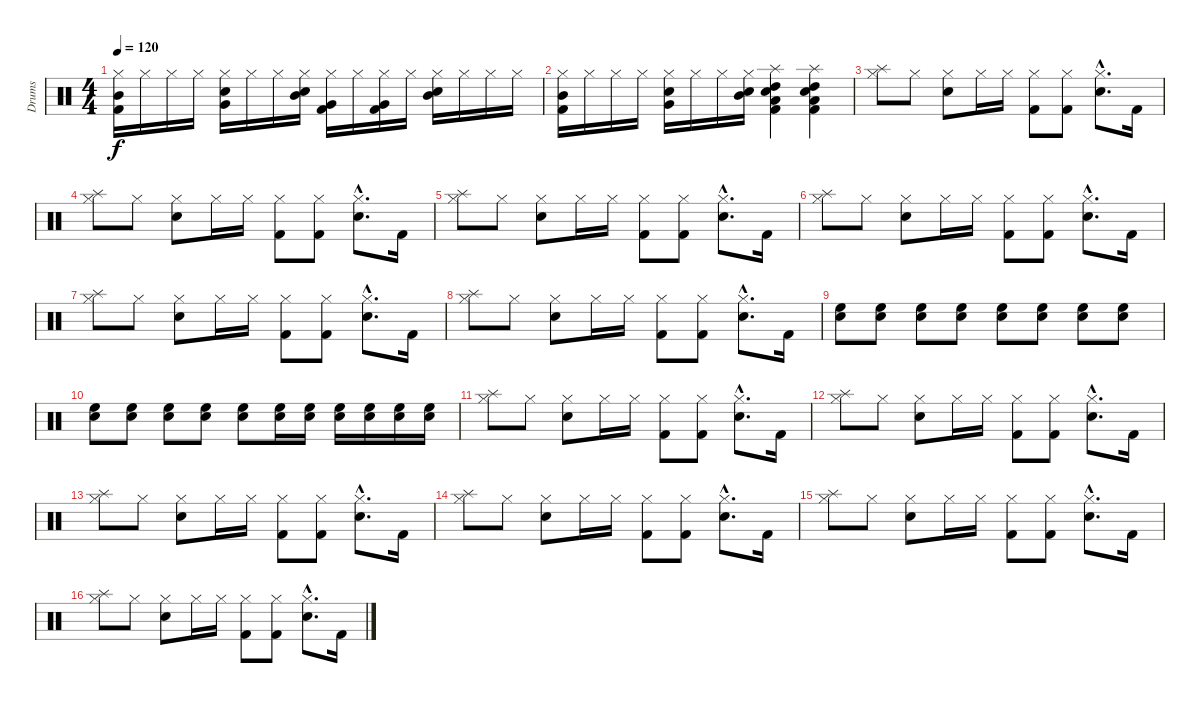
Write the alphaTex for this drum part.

\track ("Drums" "Drums") {instrument percussion}
\staff {score}
\articulation defaults
\ts (4 4)
\tempo 120
\clef neutral
\ks c
("Hi-Hat (closed)" "Kick (hit) 2" "Mid Tom (hit)").16{dy f} "Hi-Hat (closed)".16 "Hi-Hat (closed)".16 "Hi-Hat (closed)".16 ("Hi-Hat (closed)" "Snare (hit) 2" "Very Low Tom (hit)").16 "Hi-Hat (closed)".16 "Hi-Hat (closed)".16 ("Hi-Hat (closed)" "Snare (hit) 2" "Mid Tom (hit)").16 ("Hi-Hat (closed)" "Kick (hit) 2" "Very Low Tom (hit)").16 "Hi-Hat (closed)".16 ("Hi-Hat (closed)" "Kick (hit) 2" "Very Low Tom (hit)").16 "Hi-Hat (closed)".16 ("Hi-Hat (closed)" "Snare (hit) 2" "Mid Tom (hit)").16 "Hi-Hat (closed)".16 "Hi-Hat (closed)".16 "Hi-Hat (closed)".16 |
("Hi-Hat (closed)" "Kick (hit) 2" "Mid Tom (hit)").16 "Hi-Hat (closed)".16 "Hi-Hat (closed)".16 "Hi-Hat (closed)".16 ("Hi-Hat (closed)" "Snare (hit) 2" "Very Low Tom (hit)").16 "Hi-Hat (closed)".16 "Hi-Hat (closed)".16 ("Hi-Hat (closed)" "Snare (hit) 2" "Mid Tom (hit)").16 ("Snare (hit) 2" "High Tom (hit)" "Low Tom (hit)" "Splash (hit)" "Kick (hit) 2").4 ("Snare (hit) 2" "High Tom (hit)" "Low Tom (hit)" "Splash (hit)" "Kick (hit) 2").4 |
("Splash (hit)" "Hi-Hat (closed)").8 "Hi-Hat (closed)".8 ("Snare (hit) 2" "Hi-Hat (closed)").8 "Hi-Hat (closed)".16 "Hi-Hat (closed)".16 ("Kick (hit) 2" "Hi-Hat (closed)").8 ("Kick (hit) 2" "Hi-Hat (closed)").8 ("Snare (hit) 2"{hac} "Hi-Hat (closed)"{hac}).8{d} "Kick (hit) 2".16 |
("Splash (hit)" "Hi-Hat (closed)").8 "Hi-Hat (closed)".8 ("Snare (hit) 2" "Hi-Hat (closed)").8 "Hi-Hat (closed)".16 "Hi-Hat (closed)".16 ("Kick (hit) 2" "Hi-Hat (closed)").8 ("Kick (hit) 2" "Hi-Hat (closed)").8 ("Snare (hit) 2"{hac} "Hi-Hat (closed)"{hac}).8{d} "Kick (hit) 2".16 |
("Splash (hit)" "Hi-Hat (closed)").8 "Hi-Hat (closed)".8 ("Snare (hit) 2" "Hi-Hat (closed)").8 "Hi-Hat (closed)".16 "Hi-Hat (closed)".16 ("Kick (hit) 2" "Hi-Hat (closed)").8 ("Kick (hit) 2" "Hi-Hat (closed)").8 ("Snare (hit) 2"{hac} "Hi-Hat (closed)"{hac}).8{d} "Kick (hit) 2".16 |
("Splash (hit)" "Hi-Hat (closed)").8 "Hi-Hat (closed)".8 ("Snare (hit) 2" "Hi-Hat (closed)").8 "Hi-Hat (closed)".16 "Hi-Hat (closed)".16 ("Kick (hit) 2" "Hi-Hat (closed)").8 ("Kick (hit) 2" "Hi-Hat (closed)").8 ("Snare (hit) 2"{hac} "Hi-Hat (closed)"{hac}).8{d} "Kick (hit) 2".16 |
("Splash (hit)" "Hi-Hat (closed)").8 "Hi-Hat (closed)".8 ("Snare (hit) 2" "Hi-Hat (closed)").8 "Hi-Hat (closed)".16 "Hi-Hat (closed)".16 ("Kick (hit) 2" "Hi-Hat (closed)").8 ("Kick (hit) 2" "Hi-Hat (closed)").8 ("Snare (hit) 2"{hac} "Hi-Hat (closed)"{hac}).8{d} "Kick (hit) 2".16 |
("Splash (hit)" "Hi-Hat (closed)").8 "Hi-Hat (closed)".8 ("Snare (hit) 2" "Hi-Hat (closed)").8 "Hi-Hat (closed)".16 "Hi-Hat (closed)".16 ("Kick (hit) 2" "Hi-Hat (closed)").8 ("Kick (hit) 2" "Hi-Hat (closed)").8 ("Snare (hit) 2"{hac} "Hi-Hat (closed)"{hac}).8{d} "Kick (hit) 2".16 |
("Snare (hit) 2" "High Floor Tom (hit)").8 ("Snare (hit) 2" "High Floor Tom (hit)").8 ("Snare (hit) 2" "High Floor Tom (hit)").8 ("Snare (hit) 2" "High Floor Tom (hit)").8 ("Snare (hit) 2" "High Floor Tom (hit)").8 ("Snare (hit) 2" "High Floor Tom (hit)").8 ("Snare (hit) 2" "High Floor Tom (hit)").8 ("Snare (hit) 2" "High Floor Tom (hit)").8 |
("Snare (hit) 2" "High Floor Tom (hit)").8 ("Snare (hit) 2" "High Floor Tom (hit)").8 ("Snare (hit) 2" "High Floor Tom (hit)").8 ("Snare (hit) 2" "High Floor Tom (hit)").8 ("Snare (hit) 2" "High Floor Tom (hit)").8 ("Snare (hit) 2" "High Floor Tom (hit)").16 ("Snare (hit) 2" "High Floor Tom (hit)").16 ("Snare (hit) 2" "High Floor Tom (hit)").16 ("Snare (hit) 2" "High Floor Tom (hit)").16 ("Snare (hit) 2" "High Floor Tom (hit)").16 ("Snare (hit) 2" "High Floor Tom (hit)").16 |
("Splash (hit)" "Hi-Hat (closed)").8 "Hi-Hat (closed)".8 ("Snare (hit) 2" "Hi-Hat (closed)").8 "Hi-Hat (closed)".16 "Hi-Hat (closed)".16 ("Kick (hit) 2" "Hi-Hat (closed)").8 ("Kick (hit) 2" "Hi-Hat (closed)").8 ("Snare (hit) 2"{hac} "Hi-Hat (closed)"{hac}).8{d} "Kick (hit) 2".16 |
("Splash (hit)" "Hi-Hat (closed)").8 "Hi-Hat (closed)".8 ("Snare (hit) 2" "Hi-Hat (closed)").8 "Hi-Hat (closed)".16 "Hi-Hat (closed)".16 ("Kick (hit) 2" "Hi-Hat (closed)").8 ("Kick (hit) 2" "Hi-Hat (closed)").8 ("Snare (hit) 2"{hac} "Hi-Hat (closed)"{hac}).8{d} "Kick (hit) 2".16 |
("Splash (hit)" "Hi-Hat (closed)").8 "Hi-Hat (closed)".8 ("Snare (hit) 2" "Hi-Hat (closed)").8 "Hi-Hat (closed)".16 "Hi-Hat (closed)".16 ("Kick (hit) 2" "Hi-Hat (closed)").8 ("Kick (hit) 2" "Hi-Hat (closed)").8 ("Snare (hit) 2"{hac} "Hi-Hat (closed)"{hac}).8{d} "Kick (hit) 2".16 |
("Splash (hit)" "Hi-Hat (closed)").8 "Hi-Hat (closed)".8 ("Snare (hit) 2" "Hi-Hat (closed)").8 "Hi-Hat (closed)".16 "Hi-Hat (closed)".16 ("Kick (hit) 2" "Hi-Hat (closed)").8 ("Kick (hit) 2" "Hi-Hat (closed)").8 ("Snare (hit) 2"{hac} "Hi-Hat (closed)"{hac}).8{d} "Kick (hit) 2".16 |
("Splash (hit)" "Hi-Hat (closed)").8 "Hi-Hat (closed)".8 ("Snare (hit) 2" "Hi-Hat (closed)").8 "Hi-Hat (closed)".16 "Hi-Hat (closed)".16 ("Kick (hit) 2" "Hi-Hat (closed)").8 ("Kick (hit) 2" "Hi-Hat (closed)").8 ("Snare (hit) 2"{hac} "Hi-Hat (closed)"{hac}).8{d} "Kick (hit) 2".16 |
("Splash (hit)" "Hi-Hat (closed)").8 "Hi-Hat (closed)".8 ("Snare (hit) 2" "Hi-Hat (closed)").8 "Hi-Hat (closed)".16 "Hi-Hat (closed)".16 ("Kick (hit) 2" "Hi-Hat (closed)").8 ("Kick (hit) 2" "Hi-Hat (closed)").8 ("Snare (hit) 2"{hac} "Hi-Hat (closed)"{hac}).8{d} "Kick (hit) 2".16
